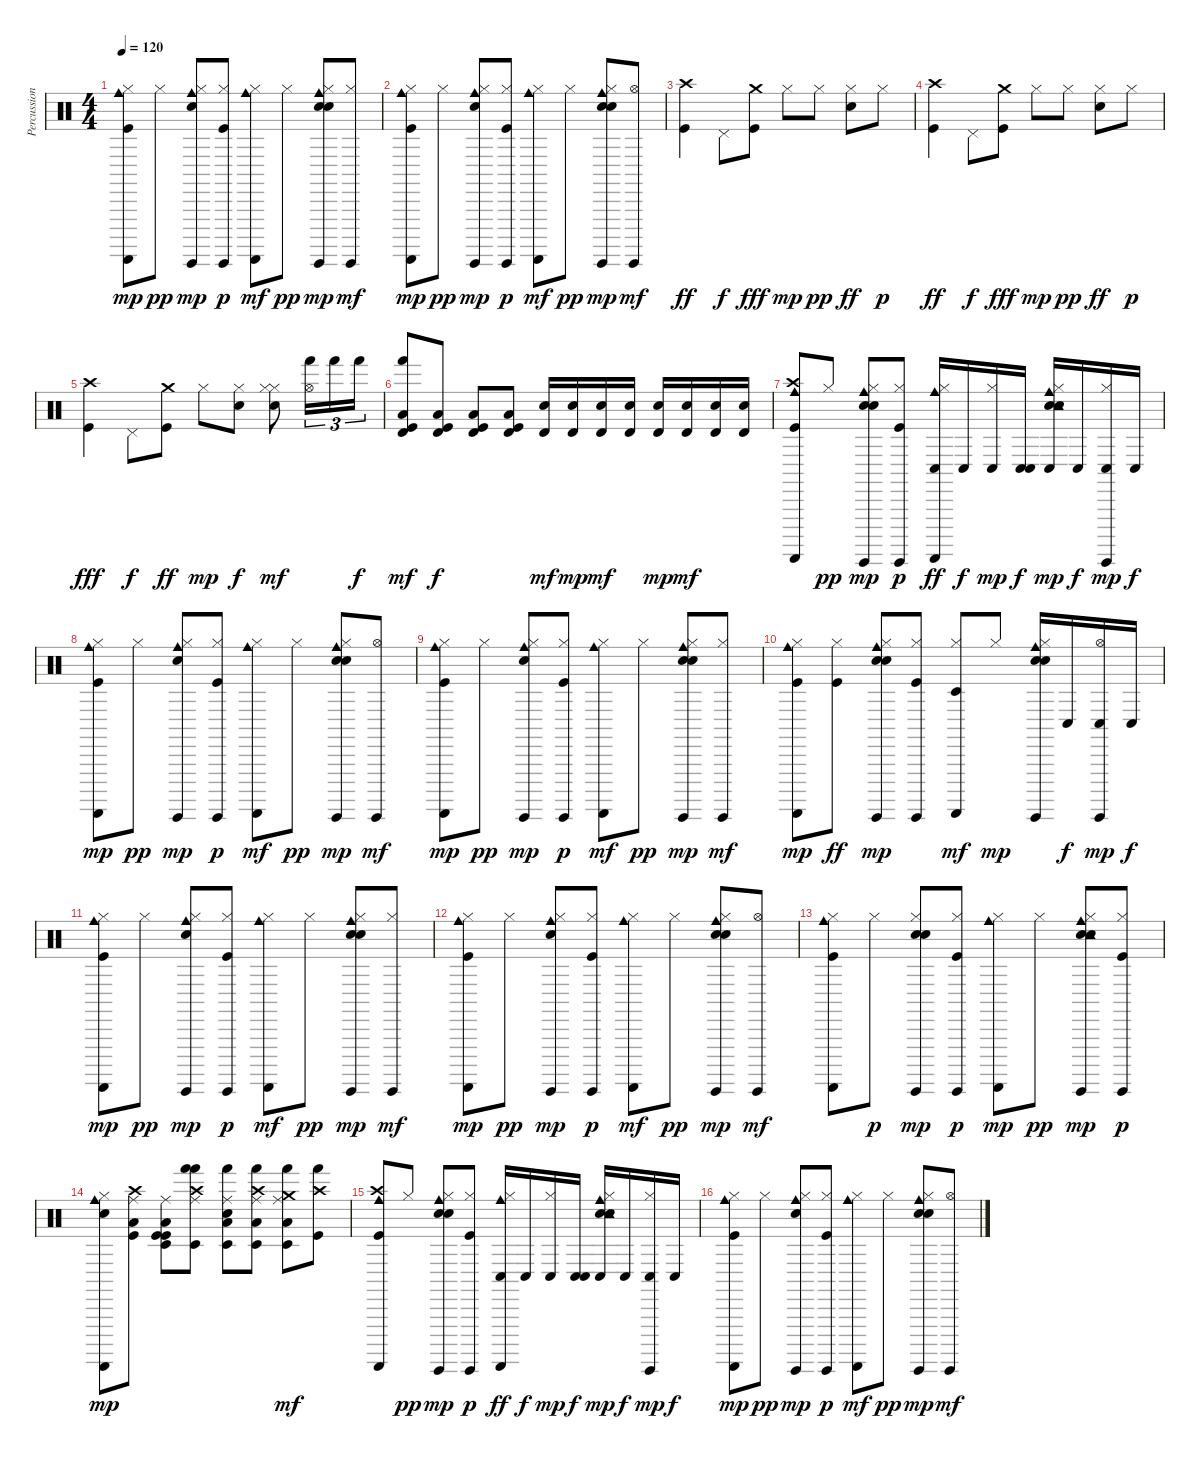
\track ("Percussions" "Percussion") {instrument percussion}
\staff {score}
\articulation defaults
\ts (4 4)
\tempo 120
\clef neutral
\ks c
("Hi-Hat (closed)" "Guiro (scrap-return)" "Cowbell medium (hit)" "Kick (hit)").8{dy mp} "Hi-Hat (closed)".8{dy pp} ("Hi-Hat (closed)" "Guiro (hit)" "Snare (hit) 2" "Cowbell medium (hit)").8{dy mp} ("Hi-Hat (closed)" "Guiro (hit)" "Kick (hit)").8{dy p} ("Hi-Hat (closed)" "Guiro (scrap-return)" "Cowbell medium (hit)").8{dy mf} "Hi-Hat (closed)".8{dy pp} ("Hi-Hat (closed)" "Guiro (hit)" "Snare (hit) 2" "Cowbell medium (hit)" "Hand Clap (hit)").8{dy mp} ("Hi-Hat (closed)" "Guiro (hit)").8{dy mf} |
("Hi-Hat (closed)" "Guiro (scrap-return)" "Cowbell medium (hit)" "Kick (hit)").8{dy mp} "Hi-Hat (closed)".8{dy pp} ("Hi-Hat (closed)" "Guiro (hit)" "Snare (hit) 2" "Cowbell medium (hit)").8{dy mp} ("Hi-Hat (closed)" "Guiro (hit)" "Kick (hit)").8{dy p} ("Hi-Hat (closed)" "Guiro (scrap-return)" "Cowbell medium (hit)").8{dy mf} "Hi-Hat (closed)".8{dy pp} ("Hi-Hat (closed)" "Guiro (hit)" "Snare (hit) 2" "Cowbell medium (hit)" "Hand Clap (hit)").8{dy mp} ("Hi-Hat (open)" "Guiro (hit)").8{dy mf} |
("Crash high (hit)" "Kick (hit)").4{dy ff} "Pedal Hi-Hat (hit)".8{dy f} ("Crash medium (hit)" "Kick (hit)").8{dy fff} "Hi-Hat (closed)".8{dy mp} "Hi-Hat (closed)".8{dy pp} ("Hi-Hat (closed)" "Snare (hit) 2").8{dy ff} "Hi-Hat (closed)".8{dy p} |
("Crash high (hit)" "Kick (hit)").4{dy ff} "Pedal Hi-Hat (hit)".8{dy f} ("Crash medium (hit)" "Kick (hit)").8{dy fff} "Hi-Hat (closed)".8{dy mp} "Hi-Hat (closed)".8{dy pp} ("Hi-Hat (closed)" "Snare (hit) 2").8{dy ff} "Hi-Hat (closed)".8{dy p} |
("Crash high (hit)" "Kick (hit)").4{dy fff} "Pedal Hi-Hat (hit)".8{dy f} ("Crash medium (hit)" "Kick (hit)").8{dy ff} "Hi-Hat (closed)".8{dy mp} ("Hi-Hat (closed)" "Snare (hit) 2").8{dy f} ("Hi-Hat (closed)" "Hi-Hat (closed)" "Snare (hit) 2").8{dy mf} ("Hi-Hat (open)" "Hand (hit)").16{tu (3 2)} "Hand (hit)".16{tu (3 2)} "Hand (hit)".16{tu (3 2) dy f} |
("Hand (hit)" "Timbale high (hit)" "Low Tom (hit)" "Kick (hit)").8{dy mf} ("Timbale high (hit)" "Low Tom (hit)" "Kick (hit)").8{dy f} ("Timbale high (hit)" "Low Tom (hit)" "Kick (hit)").8 ("Timbale high (hit)" "Low Tom (hit)" "Kick (hit)").8 ("Timbale high (hit)" "Snare (hit) 2").16{dy mf} ("Timbale high (hit)" "Snare (hit) 2").16{dy mp} ("Timbale high (hit)" "Snare (hit) 2").16{dy mf} ("Timbale high (hit)" "Snare (hit) 2").16 ("Timbale high (hit)" "Snare (hit) 2").16{dy mp} ("Timbale high (hit)" "Snare (hit) 2").16{dy mf} ("Timbale high (hit)" "Snare (hit) 2").16 ("Timbale high (hit)" "Snare (hit) 2").16 |
("Crash high (hit)" "Guiro (scrap-return)" "Cowbell medium (hit)" "Kick (hit)").8 "Hi-Hat (closed)".8{dy pp} ("Hi-Hat (closed)" "Guiro (hit)" "Snare (hit) 2" "Cowbell medium (hit)" "Hand Clap (hit)").8{dy mp} ("Hi-Hat (closed)" "Guiro (hit)" "Kick (hit)").8{dy p} ("Hi-Hat (closed)" "Guiro (scrap-return)" "Conga low (hit)" "Cowbell medium (hit)").16{dy ff} "Conga low (hit)".16{dy f} ("Hi-Hat (closed)" "Conga low (hit)").16{dy mp} ("Conga low (hit)" "Conga low (hit)").16{dy f} ("Hi-Hat (closed)" "Conga low (hit)" "Snare (hit) 2" "Hand Clap (hit)" "Tambourine (hit)" "Cowbell medium (hit)").16{dy mp} "Conga low (hit)".16{dy f} ("Hi-Hat (closed)" "Conga low (hit)" "Guiro (hit)").16{dy mp} "Conga low (hit)".16{dy f} |
("Hi-Hat (closed)" "Guiro (scrap-return)" "Cowbell medium (hit)" "Kick (hit)").8{dy mp} "Hi-Hat (closed)".8{dy pp} ("Hi-Hat (closed)" "Guiro (hit)" "Snare (hit) 2" "Cowbell medium (hit)").8{dy mp} ("Hi-Hat (closed)" "Guiro (hit)" "Kick (hit)").8{dy p} ("Hi-Hat (closed)" "Guiro (scrap-return)" "Cowbell medium (hit)").8{dy mf} "Hi-Hat (closed)".8{dy pp} ("Hi-Hat (closed)" "Guiro (hit)" "Snare (hit) 2" "Cowbell medium (hit)" "Hand Clap (hit)").8{dy mp} ("Hi-Hat (open)" "Guiro (hit)").8{dy mf} |
("Hi-Hat (closed)" "Guiro (scrap-return)" "Cowbell medium (hit)" "Kick (hit)").8{dy mp} "Hi-Hat (closed)".8{dy pp} ("Hi-Hat (closed)" "Guiro (hit)" "Snare (hit) 2" "Cowbell medium (hit)").8{dy mp} ("Hi-Hat (closed)" "Guiro (hit)" "Kick (hit)").8{dy p} ("Hi-Hat (closed)" "Guiro (scrap-return)" "Cowbell medium (hit)").8{dy mf} "Hi-Hat (closed)".8{dy pp} ("Hi-Hat (closed)" "Guiro (hit)" "Snare (hit) 2" "Cowbell medium (hit)" "Hand Clap (hit)").8{dy mp} ("Hi-Hat (closed)" "Guiro (hit)").8{dy mf} |
("Hi-Hat (closed)" "Guiro (scrap-return)" "Cowbell medium (hit)" "Kick (hit)").8{dy mp} ("Hi-Hat (closed)" "Kick (hit)").8{dy ff} ("Hi-Hat (closed)" "Guiro (hit)" "Snare (hit) 2" "Hand Clap (hit)" "Cowbell medium (hit)").8{dy mp} ("Hi-Hat (closed)" "Guiro (hit)" "Kick (hit)").8 ("Hi-Hat (closed)" "Guiro (scrap-return)" "Timbale low (hit)").8{dy mf} "Hi-Hat (closed)".8{dy mp} ("Hi-Hat (closed)" "Guiro (hit)" "Snare (hit) 2" "Hand Clap (hit)" "Cowbell medium (hit)").16 "Conga low (hit)".16{dy f} ("Hi-Hat (open)" "Conga low (hit)" "Guiro (hit)").16{dy mp} "Conga low (hit)".16{dy f} |
("Hi-Hat (closed)" "Guiro (scrap-return)" "Cowbell medium (hit)" "Kick (hit)").8{dy mp} "Hi-Hat (closed)".8{dy pp} ("Hi-Hat (closed)" "Guiro (hit)" "Snare (hit) 2" "Cowbell medium (hit)").8{dy mp} ("Hi-Hat (closed)" "Guiro (hit)" "Kick (hit)").8{dy p} ("Hi-Hat (closed)" "Guiro (scrap-return)" "Cowbell medium (hit)").8{dy mf} "Hi-Hat (closed)".8{dy pp} ("Hi-Hat (closed)" "Guiro (hit)" "Snare (hit) 2" "Cowbell medium (hit)" "Hand Clap (hit)").8{dy mp} ("Hi-Hat (closed)" "Guiro (hit)").8{dy mf} |
("Hi-Hat (closed)" "Guiro (scrap-return)" "Cowbell medium (hit)" "Kick (hit)").8{dy mp} "Hi-Hat (closed)".8{dy pp} ("Hi-Hat (closed)" "Guiro (hit)" "Snare (hit) 2" "Cowbell medium (hit)").8{dy mp} ("Hi-Hat (closed)" "Guiro (hit)" "Kick (hit)").8{dy p} ("Hi-Hat (closed)" "Guiro (scrap-return)" "Cowbell medium (hit)").8{dy mf} "Hi-Hat (closed)".8{dy pp} ("Hi-Hat (closed)" "Guiro (hit)" "Snare (hit) 2" "Cowbell medium (hit)" "Hand Clap (hit)").8{dy mp} ("Hi-Hat (open)" "Guiro (hit)").8{dy mf} |
("Hi-Hat (closed)" "Guiro (scrap-return)" "Cowbell medium (hit)" "Kick (hit)").8 "Hi-Hat (closed)".8{dy p} ("Hi-Hat (closed)" "Guiro (hit)" "Snare (hit) 2" "Hand Clap (hit)").8{dy mp} ("Hi-Hat (closed)" "Guiro (hit)" "Kick (hit)").8{dy p} ("Hi-Hat (closed)" "Guiro (scrap-return)" "Cowbell medium (hit)").8{dy mp} "Hi-Hat (closed)".8{dy pp} ("Hi-Hat (closed)" "Guiro (hit)" "Snare (hit) 2" "Hand Clap (hit)" "Cowbell medium (hit)" "Tambourine (hit)").8{dy mp} ("Hi-Hat (closed)" "Guiro (hit)" "Kick (hit)").8{dy p} |
("Hi-Hat (closed)" "Guiro (scrap-return)" "Snare (hit) 2" "Cowbell medium (hit)").8{dy mp} ("Crash high (hit)" "Ride (middle)" "Low Tom (hit)" "Kick (hit)").8 ("Ride (middle)" "Kick (hit)" "Low Tom (hit)" "Kick (hit)" "Timbale low (hit)").8 ("Crash high (hit)" "Ride (middle)" "Hand (hit)" "Hand (hit)" "Timbale low (hit)").8 ("Low Tom (hit)" "Snare (hit) 2" "Ride (middle)" "Hand (hit)" "Timbale low (hit)").8 ("Crash high (hit)" "Low Tom (hit)" "Ride (middle)" "Hand (hit)" "Timbale low (hit)").8 ("Low Tom (hit)" "Ride (middle)" "Crash medium (hit)" "Hand (hit)" "Timbale low (hit)").8{dy mf} ("Crash high (hit)" "Hand (hit)" "Kick (hit)").8 |
("Crash high (hit)" "Guiro (scrap-return)" "Cowbell medium (hit)" "Kick (hit)").8 "Hi-Hat (closed)".8{dy pp} ("Hi-Hat (closed)" "Guiro (hit)" "Snare (hit) 2" "Cowbell medium (hit)" "Hand Clap (hit)").8{dy mp} ("Hi-Hat (closed)" "Guiro (hit)" "Kick (hit)").8{dy p} ("Hi-Hat (closed)" "Guiro (scrap-return)" "Conga low (hit)" "Cowbell medium (hit)").16{dy ff} "Conga low (hit)".16{dy f} ("Hi-Hat (closed)" "Conga low (hit)").16{dy mp} ("Conga low (hit)" "Conga low (hit)").16{dy f} ("Hi-Hat (closed)" "Conga low (hit)" "Snare (hit) 2" "Hand Clap (hit)" "Tambourine (hit)" "Cowbell medium (hit)").16{dy mp} "Conga low (hit)".16{dy f} ("Hi-Hat (closed)" "Conga low (hit)" "Guiro (hit)").16{dy mp} "Conga low (hit)".16{dy f} |
("Hi-Hat (closed)" "Guiro (scrap-return)" "Cowbell medium (hit)" "Kick (hit)").8{dy mp} "Hi-Hat (closed)".8{dy pp} ("Hi-Hat (closed)" "Guiro (hit)" "Snare (hit) 2" "Cowbell medium (hit)").8{dy mp} ("Hi-Hat (closed)" "Guiro (hit)" "Kick (hit)").8{dy p} ("Hi-Hat (closed)" "Guiro (scrap-return)" "Cowbell medium (hit)").8{dy mf} "Hi-Hat (closed)".8{dy pp} ("Hi-Hat (closed)" "Guiro (hit)" "Snare (hit) 2" "Cowbell medium (hit)" "Hand Clap (hit)").8{dy mp} ("Hi-Hat (open)" "Guiro (hit)").8{dy mf}
